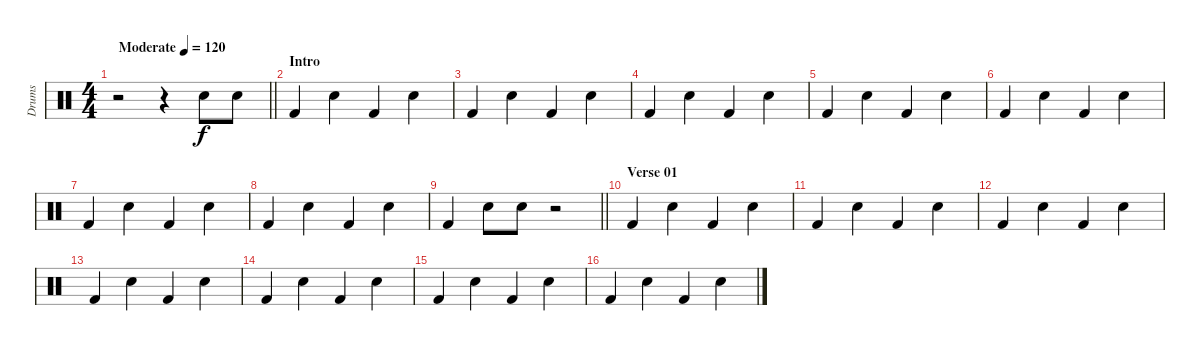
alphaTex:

\track ("Drums" "Drums") {instrument percussion}
\staff {score}
\articulation defaults
\ts (4 4)
\tempo (120 "Moderate")
\clef neutral
\barLineRight lightlight
\ks c
r.2{dy f} r.4 "Electric Snare (hit)".8 "Electric Snare (hit)".8 |
\section ("" "Intro")
"Kick (hit) 2".4 "Electric Snare (hit)".4 "Kick (hit) 2".4 "Electric Snare (hit)".4 |
"Kick (hit) 2".4 "Electric Snare (hit)".4 "Kick (hit) 2".4 "Electric Snare (hit)".4 |
"Kick (hit) 2".4 "Electric Snare (hit)".4 "Kick (hit) 2".4 "Electric Snare (hit)".4 |
"Kick (hit) 2".4 "Electric Snare (hit)".4 "Kick (hit) 2".4 "Electric Snare (hit)".4 |
"Kick (hit) 2".4 "Electric Snare (hit)".4 "Kick (hit) 2".4 "Electric Snare (hit)".4 |
"Kick (hit) 2".4 "Electric Snare (hit)".4 "Kick (hit) 2".4 "Electric Snare (hit)".4 |
"Kick (hit) 2".4 "Electric Snare (hit)".4 "Kick (hit) 2".4 "Electric Snare (hit)".4 |
\barLineRight lightlight "Kick (hit) 2".4 "Electric Snare (hit)".8 "Electric Snare (hit)".8
r.2 |
\section ("" "Verse 01")
"Kick (hit) 2".4 "Electric Snare (hit)".4 "Kick (hit) 2".4 "Electric Snare (hit)".4 |
"Kick (hit) 2".4 "Electric Snare (hit)".4 "Kick (hit) 2".4 "Electric Snare (hit)".4 |
"Kick (hit) 2".4 "Electric Snare (hit)".4 "Kick (hit) 2".4 "Electric Snare (hit)".4 |
"Kick (hit) 2".4 "Electric Snare (hit)".4 "Kick (hit) 2".4 "Electric Snare (hit)".4 |
"Kick (hit) 2".4 "Electric Snare (hit)".4 "Kick (hit) 2".4 "Electric Snare (hit)".4 |
"Kick (hit) 2".4 "Electric Snare (hit)".4 "Kick (hit) 2".4 "Electric Snare (hit)".4 |
"Kick (hit) 2".4 "Electric Snare (hit)".4 "Kick (hit) 2".4 "Electric Snare (hit)".4
